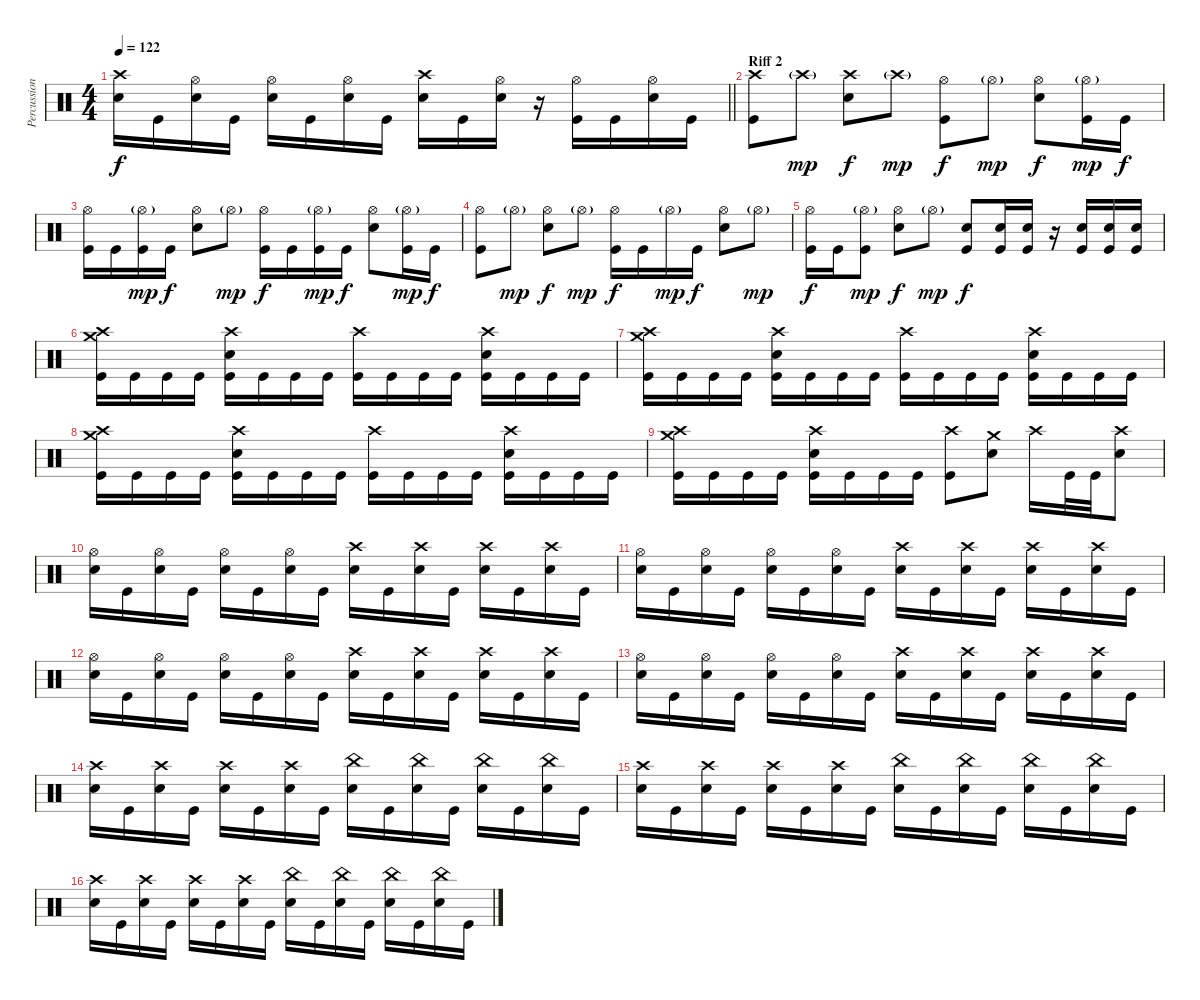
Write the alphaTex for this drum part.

\track ("Percussion" "Percussion") {instrument percussion}
\staff {score}
\articulation defaults
\ts (4 4)
\tempo 122
\clef neutral
\barLineRight lightlight
\ks c
("Crash high (hit)" "Snare (hit) 2").16{dy f} "Kick (hit)".16 ("Hi-Hat (open)" "Snare (hit) 2").16 "Kick (hit)".16 ("Hi-Hat (open)" "Snare (hit) 2").16 "Kick (hit)".16 ("Hi-Hat (open)" "Snare (hit) 2").16 "Kick (hit)".16 ("Crash high (hit)" "Snare (hit) 2").16 "Kick (hit)".16 ("Hi-Hat (open)" "Snare (hit) 2").16 r.16 ("Hi-Hat (open)" "Kick (hit)").16 "Kick (hit)".16 ("Hi-Hat (open)" "Snare (hit) 2").16 "Kick (hit)".16 |
\section ("" "Riff 2")
("Crash high (hit)" "Kick (hit)").8 "Crash high (hit)"{g}.8{dy mp} ("Crash high (hit)" "Snare (hit) 2").8{dy f} "Crash high (hit)"{g}.8{dy mp} ("Hi-Hat (open)" "Kick (hit)").8{dy f} "Hi-Hat (open)"{g}.8{dy mp} ("Hi-Hat (open)" "Snare (hit) 2").8{dy f} ("Kick (hit)" "Hi-Hat (open)"{g}).16{dy mp} "Kick (hit)".16{dy f} |
("Hi-Hat (open)" "Kick (hit)").16 "Kick (hit)".16 ("Hi-Hat (open)"{g} "Kick (hit)").16{dy mp} "Kick (hit)".16{dy f} ("Hi-Hat (open)" "Snare (hit) 2").8 "Hi-Hat (open)"{g}.8{dy mp} ("Hi-Hat (open)" "Kick (hit)").16{dy f} "Kick (hit)".16 ("Hi-Hat (open)"{g} "Kick (hit)").16{dy mp} "Kick (hit)".16{dy f} ("Snare (hit) 2" "Hi-Hat (open)").8 ("Hi-Hat (open)"{g} "Kick (hit)").16{dy mp} "Kick (hit)".16{dy f} |
("Hi-Hat (open)" "Kick (hit)").8 "Hi-Hat (open)"{g}.8{dy mp} ("Hi-Hat (open)" "Snare (hit) 2").8{dy f} "Hi-Hat (open)"{g}.8{dy mp} ("Hi-Hat (open)" "Kick (hit)").16{dy f} "Kick (hit)".16 "Hi-Hat (open)"{g}.16{dy mp} "Kick (hit)".16{dy f} ("Hi-Hat (open)" "Snare (hit) 2").8 "Hi-Hat (open)"{g}.8{dy mp} |
("Hi-Hat (open)" "Kick (hit)").16{dy f} "Kick (hit)".16 ("Hi-Hat (open)"{g} "Kick (hit)").8{dy mp} ("Hi-Hat (open)" "Snare (hit) 2").8{dy f} "Hi-Hat (open)"{g}.8{dy mp} ("Snare (hit) 2" "Kick (hit)").8{dy f} ("Kick (hit)" "Snare (hit) 2").16 ("Kick (hit)" "Snare (hit) 2").16 r.16 ("Kick (hit)" "Snare (hit) 2").16 ("Kick (hit)" "Snare (hit) 2").16 ("Kick (hit)" "Snare (hit) 2").16 |
("Crash medium (hit)" "Crash high (hit)" "Kick (hit)").16 "Kick (hit)".16 "Kick (hit)".16 "Kick (hit)".16 ("Crash high (hit)" "Snare (hit) 2" "Kick (hit)").16 "Kick (hit)".16 "Kick (hit)".16 "Kick (hit)".16 ("Crash high (hit)" "Kick (hit)").16 "Kick (hit)".16 "Kick (hit)".16 "Kick (hit)".16 ("Crash high (hit)" "Snare (hit) 2" "Kick (hit)").16 "Kick (hit)".16 "Kick (hit)".16 "Kick (hit)".16 |
("Crash medium (hit)" "Crash high (hit)" "Kick (hit)").16 "Kick (hit)".16 "Kick (hit)".16 "Kick (hit)".16 ("Crash high (hit)" "Snare (hit) 2" "Kick (hit)").16 "Kick (hit)".16 "Kick (hit)".16 "Kick (hit)".16 ("Crash high (hit)" "Kick (hit)").16 "Kick (hit)".16 "Kick (hit)".16 "Kick (hit)".16 ("Crash high (hit)" "Snare (hit) 2" "Kick (hit)").16 "Kick (hit)".16 "Kick (hit)".16 "Kick (hit)".16 |
("Crash medium (hit)" "Crash high (hit)" "Kick (hit)").16 "Kick (hit)".16 "Kick (hit)".16 "Kick (hit)".16 ("Crash high (hit)" "Snare (hit) 2" "Kick (hit)").16 "Kick (hit)".16 "Kick (hit)".16 "Kick (hit)".16 ("Crash high (hit)" "Kick (hit)").16 "Kick (hit)".16 "Kick (hit)".16 "Kick (hit)".16 ("Crash high (hit)" "Snare (hit) 2" "Kick (hit)").16 "Kick (hit)".16 "Kick (hit)".16 "Kick (hit)".16 |
("Crash medium (hit)" "Crash high (hit)" "Kick (hit)").16 "Kick (hit)".16 "Kick (hit)".16 "Kick (hit)".16 ("Crash high (hit)" "Snare (hit) 2" "Kick (hit)").16 "Kick (hit)".16 "Kick (hit)".16 "Kick (hit)".16 ("Crash high (hit)" "Kick (hit)").8 ("Crash medium (hit)" "Snare (hit) 2").8 "Crash high (hit)".16 "Kick (hit)".32 "Kick (hit)".32 ("Crash high (hit)" "Snare (hit) 2").8 |
("Hi-Hat (open)" "Snare (hit) 2").16 "Kick (hit)".16 ("Hi-Hat (open)" "Snare (hit) 2").16 "Kick (hit)".16 ("Hi-Hat (open)" "Snare (hit) 2").16 "Kick (hit)".16 ("Hi-Hat (open)" "Snare (hit) 2").16 "Kick (hit)".16 ("Crash high (hit)" "Snare (hit) 2").16 "Kick (hit)".16 ("Crash high (hit)" "Snare (hit) 2").16 "Kick (hit)".16 ("Crash high (hit)" "Snare (hit) 2").16 "Kick (hit)".16 ("Crash high (hit)" "Snare (hit) 2").16 "Kick (hit)".16 |
("Hi-Hat (open)" "Snare (hit) 2").16 "Kick (hit)".16 ("Hi-Hat (open)" "Snare (hit) 2").16 "Kick (hit)".16 ("Hi-Hat (open)" "Snare (hit) 2").16 "Kick (hit)".16 ("Hi-Hat (open)" "Snare (hit) 2").16 "Kick (hit)".16 ("Crash high (hit)" "Snare (hit) 2").16 "Kick (hit)".16 ("Crash high (hit)" "Snare (hit) 2").16 "Kick (hit)".16 ("Crash high (hit)" "Snare (hit) 2").16 "Kick (hit)".16 ("Crash high (hit)" "Snare (hit) 2").16 "Kick (hit)".16 |
("Hi-Hat (open)" "Snare (hit) 2").16 "Kick (hit)".16 ("Hi-Hat (open)" "Snare (hit) 2").16 "Kick (hit)".16 ("Hi-Hat (open)" "Snare (hit) 2").16 "Kick (hit)".16 ("Hi-Hat (open)" "Snare (hit) 2").16 "Kick (hit)".16 ("Crash high (hit)" "Snare (hit) 2").16 "Kick (hit)".16 ("Crash high (hit)" "Snare (hit) 2").16 "Kick (hit)".16 ("Crash high (hit)" "Snare (hit) 2").16 "Kick (hit)".16 ("Crash high (hit)" "Snare (hit) 2").16 "Kick (hit)".16 |
("Hi-Hat (open)" "Snare (hit) 2").16 "Kick (hit)".16 ("Hi-Hat (open)" "Snare (hit) 2").16 "Kick (hit)".16 ("Hi-Hat (open)" "Snare (hit) 2").16 "Kick (hit)".16 ("Hi-Hat (open)" "Snare (hit) 2").16 "Kick (hit)".16 ("Crash high (hit)" "Snare (hit) 2").16 "Kick (hit)".16 ("Crash high (hit)" "Snare (hit) 2").16 "Kick (hit)".16 ("Crash high (hit)" "Snare (hit) 2").16 "Kick (hit)".16 ("Crash high (hit)" "Snare (hit) 2").16 "Kick (hit)".16 |
("Crash high (hit)" "Snare (hit) 2").16 "Kick (hit)".16 ("Crash high (hit)" "Snare (hit) 2").16 "Kick (hit)".16 ("Crash high (hit)" "Snare (hit) 2").16 "Kick (hit)".16 ("Crash high (hit)" "Snare (hit) 2").16 "Kick (hit)".16 ("China (hit)" "Snare (hit) 2").16 "Kick (hit)".16 ("China (hit)" "Snare (hit) 2").16 "Kick (hit)".16 ("China (hit)" "Snare (hit) 2").16 "Kick (hit)".16 ("China (hit)" "Snare (hit) 2").16 "Kick (hit)".16 |
("Crash high (hit)" "Snare (hit) 2").16 "Kick (hit)".16 ("Crash high (hit)" "Snare (hit) 2").16 "Kick (hit)".16 ("Crash high (hit)" "Snare (hit) 2").16 "Kick (hit)".16 ("Crash high (hit)" "Snare (hit) 2").16 "Kick (hit)".16 ("China (hit)" "Snare (hit) 2").16 "Kick (hit)".16 ("China (hit)" "Snare (hit) 2").16 "Kick (hit)".16 ("China (hit)" "Snare (hit) 2").16 "Kick (hit)".16 ("China (hit)" "Snare (hit) 2").16 "Kick (hit)".16 |
("Crash high (hit)" "Snare (hit) 2").16 "Kick (hit)".16 ("Crash high (hit)" "Snare (hit) 2").16 "Kick (hit)".16 ("Crash high (hit)" "Snare (hit) 2").16 "Kick (hit)".16 ("Crash high (hit)" "Snare (hit) 2").16 "Kick (hit)".16 ("China (hit)" "Snare (hit) 2").16 "Kick (hit)".16 ("China (hit)" "Snare (hit) 2").16 "Kick (hit)".16 ("China (hit)" "Snare (hit) 2").16 "Kick (hit)".16 ("China (hit)" "Snare (hit) 2").16 "Kick (hit)".16
